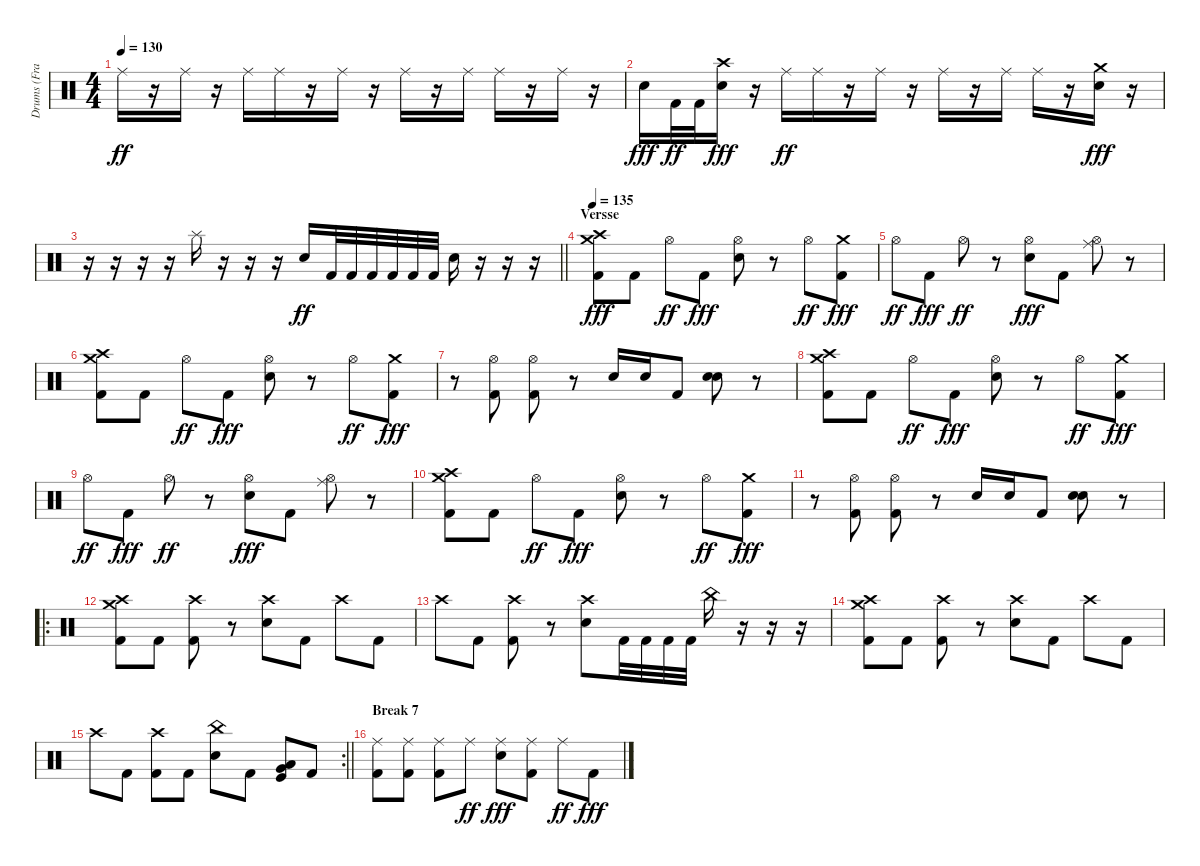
\track ("Drums (Franky)" "Drums (Fra") {instrument percussion}
\staff {score}
\articulation defaults
\ts (4 4)
\tempo 130
\clef neutral
\ks c "Ride (middle)".16{dy ff}
r.16 "Ride (middle)".16 r.16 "Ride (middle)".16 "Ride (middle)".16 r.16 "Ride (middle)".16 r.16 "Ride (middle)".16 r.16 "Ride (middle)".16 "Ride (middle)".16 r.16 "Ride (middle)".16 r.16 |
"Electric Snare (hit)".16{dy fff} "Kick (hit) 2".32{dy ff} "Kick (hit) 2".32 ("Crash high (hit)" "Electric Snare (hit)").16{dy fff} r.16 "Ride (middle)".16{dy ff} "Ride (middle)".16 r.16 "Ride (middle)".16 r.16 "Ride (middle)".16 r.16 "Ride (middle)".16 "Ride (middle)".16 r.16 ("Crash medium (hit)" "Electric Snare (hit)").16{dy fff} r.16 |
\barLineRight lightlight
r.16 r.16 r.16 r.16 "Splash (hit)".16 r.16 r.16 r.16 "Electric Snare (hit)".16{dy ff} "Kick (hit) 2".32 "Kick (hit) 2".32 "Kick (hit) 2".32 "Kick (hit) 2".32 "Kick (hit) 2".32 "Kick (hit) 2".32 "Electric Snare (hit)".16 r.16 r.16 r.16 |
\section ("" "Versse")
\tempo 135
("Crash medium (hit)" "Crash high (hit)" "Kick (hit) 2").8{dy fff} "Kick (hit) 2".8 "Hi-Hat (open)".8{dy ff} "Kick (hit) 2".8{dy fff} ("Hi-Hat (open)" "Electric Snare (hit)").8 r.8 "Hi-Hat (open)".8{dy ff} ("Crash medium (hit)" "Kick (hit) 2").8{dy fff} |
"Hi-Hat (open)".8{dy ff} "Kick (hit) 2".8{dy fff} "Hi-Hat (open)".8{dy ff} r.8 ("Hi-Hat (open)" "Electric Snare (hit)").8{dy fff} "Kick (hit) 2".8 ("Ride (middle)" "Hi-Hat (open)").8 r.8 |
("Crash medium (hit)" "Crash high (hit)" "Kick (hit) 2").8 "Kick (hit) 2".8 "Hi-Hat (open)".8{dy ff} "Kick (hit) 2".8{dy fff} ("Hi-Hat (open)" "Electric Snare (hit)").8 r.8 "Hi-Hat (open)".8{dy ff} ("Crash medium (hit)" "Kick (hit) 2").8{dy fff} |
r.8 ("Hi-Hat (open)" "Kick (hit) 2").8 ("Hi-Hat (open)" "Kick (hit) 2").8 r.8 "Electric Snare (hit)".16 "Electric Snare (hit)".16 "Kick (hit) 2".8 ("Electric Snare (hit)" "Electric Snare (hit)").8{bd 240} r.8 |
("Crash medium (hit)" "Crash high (hit)" "Kick (hit) 2").8 "Kick (hit) 2".8 "Hi-Hat (open)".8{dy ff} "Kick (hit) 2".8{dy fff} ("Hi-Hat (open)" "Electric Snare (hit)").8 r.8 "Hi-Hat (open)".8{dy ff} ("Crash medium (hit)" "Kick (hit) 2").8{dy fff} |
"Hi-Hat (open)".8{dy ff} "Kick (hit) 2".8{dy fff} "Hi-Hat (open)".8{dy ff} r.8 ("Hi-Hat (open)" "Electric Snare (hit)").8{dy fff} "Kick (hit) 2".8 ("Ride (middle)" "Hi-Hat (open)").8 r.8 |
("Crash medium (hit)" "Crash high (hit)" "Kick (hit) 2").8 "Kick (hit) 2".8 "Hi-Hat (open)".8{dy ff} "Kick (hit) 2".8{dy fff} ("Hi-Hat (open)" "Electric Snare (hit)").8 r.8 "Hi-Hat (open)".8{dy ff} ("Crash medium (hit)" "Kick (hit) 2").8{dy fff} |
r.8 ("Hi-Hat (open)" "Kick (hit) 2").8 ("Hi-Hat (open)" "Kick (hit) 2").8 r.8 "Electric Snare (hit)".16 "Electric Snare (hit)".16 "Kick (hit) 2".8 ("Electric Snare (hit)" "Electric Snare (hit)").8{bd 240} r.8 |
\ro
("Crash medium (hit)" "Crash high (hit)" "Kick (hit) 2").8 "Kick (hit) 2".8 ("Crash high (hit)" "Kick (hit) 2").8 r.8 ("Crash high (hit)" "Electric Snare (hit)").8 "Kick (hit) 2".8 "Crash high (hit)".8 "Kick (hit) 2".8 |
"Crash high (hit)".8 "Kick (hit) 2".8 ("Crash high (hit)" "Kick (hit) 2").8 r.8 ("Crash high (hit)" "Electric Snare (hit)").8 "Kick (hit) 2".32 "Kick (hit) 2".32 "Kick (hit) 2".32 "Kick (hit) 2".32 "China (hit)".16 r.16 r.16 r.16 |
("Crash medium (hit)" "Crash high (hit)" "Kick (hit) 2").8 "Kick (hit) 2".8 ("Crash high (hit)" "Kick (hit) 2").8 r.8 ("Crash high (hit)" "Electric Snare (hit)").8 "Kick (hit) 2".8 "Crash high (hit)".8 "Kick (hit) 2".8 |
\rc 2
\barLineRight lightlight "Crash high (hit)".8 "Kick (hit) 2".8
("Crash high (hit)" "Kick (hit) 2").8 "Kick (hit) 2".8 ("China (hit)" "Electric Snare (hit)").8 "Kick (hit) 2".8 ("Low Tom (hit)" "Very Low Tom (hit)" "Kick (hit)").8 "Kick (hit) 2".8 |
\section ("" "Break 7")
("Ride (middle)" "Kick (hit) 2").8 ("Ride (middle)" "Kick (hit) 2").8 ("Ride (middle)" "Kick (hit) 2").8 "Ride (middle)".8{dy ff} ("Ride (middle)" "Electric Snare (hit)").8{dy fff} ("Ride (middle)" "Kick (hit) 2").8 "Ride (middle)".8{dy ff} "Kick (hit) 2".8{dy fff}
